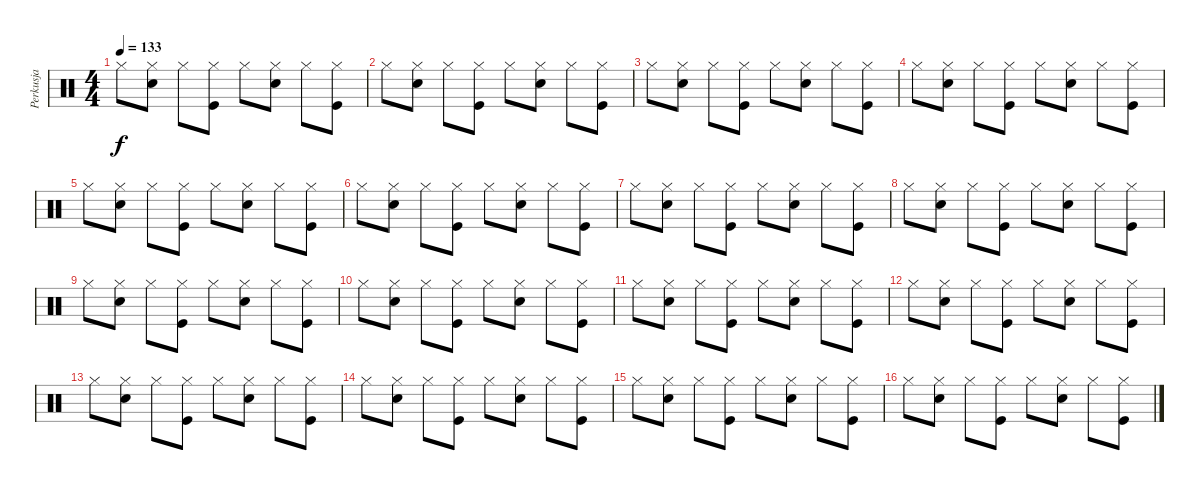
\track ("Perkusja" "Perkusja") {instrument percussion}
\staff {score}
\articulation defaults
\ts (4 4)
\tempo 133
\clef neutral
\ks c "Hi-Hat (closed)".8{dy f}
("Hi-Hat (closed)" "Snare (hit) 2").8 "Hi-Hat (closed)".8 ("Hi-Hat (closed)" "Kick (hit)").8 "Hi-Hat (closed)".8 ("Hi-Hat (closed)" "Snare (hit) 2").8 "Hi-Hat (closed)".8 ("Hi-Hat (closed)" "Kick (hit)").8 |
"Hi-Hat (closed)".8 ("Hi-Hat (closed)" "Snare (hit) 2").8 "Hi-Hat (closed)".8 ("Hi-Hat (closed)" "Kick (hit)").8 "Hi-Hat (closed)".8 ("Hi-Hat (closed)" "Snare (hit) 2").8 "Hi-Hat (closed)".8 ("Hi-Hat (closed)" "Kick (hit)").8 |
"Hi-Hat (closed)".8 ("Hi-Hat (closed)" "Snare (hit) 2").8 "Hi-Hat (closed)".8 ("Hi-Hat (closed)" "Kick (hit)").8 "Hi-Hat (closed)".8 ("Hi-Hat (closed)" "Snare (hit) 2").8 "Hi-Hat (closed)".8 ("Hi-Hat (closed)" "Kick (hit)").8 |
"Hi-Hat (closed)".8 ("Hi-Hat (closed)" "Snare (hit) 2").8 "Hi-Hat (closed)".8 ("Hi-Hat (closed)" "Kick (hit)").8 "Hi-Hat (closed)".8 ("Hi-Hat (closed)" "Snare (hit) 2").8 "Hi-Hat (closed)".8 ("Hi-Hat (closed)" "Kick (hit)").8 |
"Hi-Hat (closed)".8 ("Hi-Hat (closed)" "Snare (hit) 2").8 "Hi-Hat (closed)".8 ("Hi-Hat (closed)" "Kick (hit)").8 "Hi-Hat (closed)".8 ("Hi-Hat (closed)" "Snare (hit) 2").8 "Hi-Hat (closed)".8 ("Hi-Hat (closed)" "Kick (hit)").8 |
"Hi-Hat (closed)".8 ("Hi-Hat (closed)" "Snare (hit) 2").8 "Hi-Hat (closed)".8 ("Hi-Hat (closed)" "Kick (hit)").8 "Hi-Hat (closed)".8 ("Hi-Hat (closed)" "Snare (hit) 2").8 "Hi-Hat (closed)".8 ("Hi-Hat (closed)" "Kick (hit)").8 |
"Hi-Hat (closed)".8 ("Hi-Hat (closed)" "Snare (hit) 2").8 "Hi-Hat (closed)".8 ("Hi-Hat (closed)" "Kick (hit)").8 "Hi-Hat (closed)".8 ("Hi-Hat (closed)" "Snare (hit) 2").8 "Hi-Hat (closed)".8 ("Hi-Hat (closed)" "Kick (hit)").8 |
"Hi-Hat (closed)".8 ("Hi-Hat (closed)" "Snare (hit) 2").8 "Hi-Hat (closed)".8 ("Hi-Hat (closed)" "Kick (hit)").8 "Hi-Hat (closed)".8 ("Hi-Hat (closed)" "Snare (hit) 2").8 "Hi-Hat (closed)".8 ("Hi-Hat (closed)" "Kick (hit)").8 |
"Hi-Hat (closed)".8 ("Hi-Hat (closed)" "Snare (hit) 2").8 "Hi-Hat (closed)".8 ("Hi-Hat (closed)" "Kick (hit)").8 "Hi-Hat (closed)".8 ("Hi-Hat (closed)" "Snare (hit) 2").8 "Hi-Hat (closed)".8 ("Hi-Hat (closed)" "Kick (hit)").8 |
"Hi-Hat (closed)".8 ("Hi-Hat (closed)" "Snare (hit) 2").8 "Hi-Hat (closed)".8 ("Hi-Hat (closed)" "Kick (hit)").8 "Hi-Hat (closed)".8 ("Hi-Hat (closed)" "Snare (hit) 2").8 "Hi-Hat (closed)".8 ("Hi-Hat (closed)" "Kick (hit)").8 |
"Hi-Hat (closed)".8 ("Hi-Hat (closed)" "Snare (hit) 2").8 "Hi-Hat (closed)".8 ("Hi-Hat (closed)" "Kick (hit)").8 "Hi-Hat (closed)".8 ("Hi-Hat (closed)" "Snare (hit) 2").8 "Hi-Hat (closed)".8 ("Hi-Hat (closed)" "Kick (hit)").8 |
"Hi-Hat (closed)".8 ("Hi-Hat (closed)" "Snare (hit) 2").8 "Hi-Hat (closed)".8 ("Hi-Hat (closed)" "Kick (hit)").8 "Hi-Hat (closed)".8 ("Hi-Hat (closed)" "Snare (hit) 2").8 "Hi-Hat (closed)".8 ("Hi-Hat (closed)" "Kick (hit)").8 |
"Hi-Hat (closed)".8 ("Hi-Hat (closed)" "Snare (hit) 2").8 "Hi-Hat (closed)".8 ("Hi-Hat (closed)" "Kick (hit)").8 "Hi-Hat (closed)".8 ("Hi-Hat (closed)" "Snare (hit) 2").8 "Hi-Hat (closed)".8 ("Hi-Hat (closed)" "Kick (hit)").8 |
"Hi-Hat (closed)".8 ("Hi-Hat (closed)" "Snare (hit) 2").8 "Hi-Hat (closed)".8 ("Hi-Hat (closed)" "Kick (hit)").8 "Hi-Hat (closed)".8 ("Hi-Hat (closed)" "Snare (hit) 2").8 "Hi-Hat (closed)".8 ("Hi-Hat (closed)" "Kick (hit)").8 |
"Hi-Hat (closed)".8 ("Hi-Hat (closed)" "Snare (hit) 2").8 "Hi-Hat (closed)".8 ("Hi-Hat (closed)" "Kick (hit)").8 "Hi-Hat (closed)".8 ("Hi-Hat (closed)" "Snare (hit) 2").8 "Hi-Hat (closed)".8 ("Hi-Hat (closed)" "Kick (hit)").8 |
"Hi-Hat (closed)".8 ("Hi-Hat (closed)" "Snare (hit) 2").8 "Hi-Hat (closed)".8 ("Hi-Hat (closed)" "Kick (hit)").8 "Hi-Hat (closed)".8 ("Hi-Hat (closed)" "Snare (hit) 2").8 "Hi-Hat (closed)".8 ("Hi-Hat (closed)" "Kick (hit)").8
